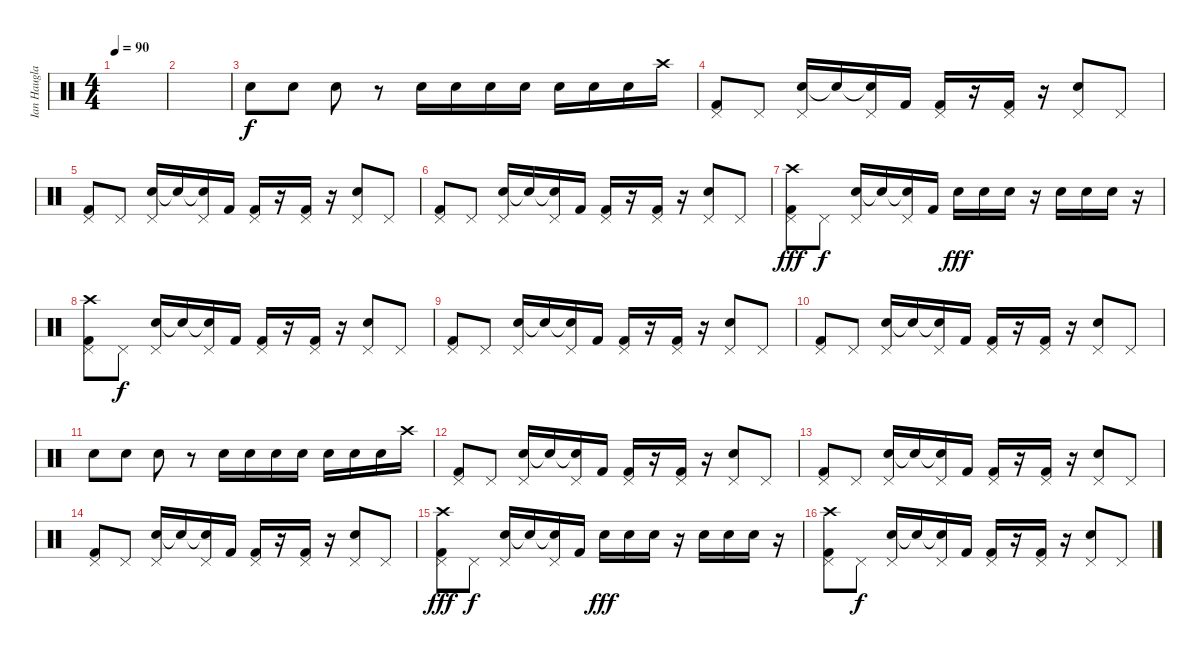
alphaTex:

\track ("Ian Haugland" "Ian Haugla") {instrument percussion}
\staff {score}
\articulation defaults
\ts (4 4)
\tempo 90
\clef neutral
\ks c
|
|
"Electric Snare (hit)".8{dy f} "Electric Snare (hit)".8 "Electric Snare (hit)".8 r.8 "Electric Snare (hit)".16 "Electric Snare (hit)".16 "Electric Snare (hit)".16 "Electric Snare (hit)".16 "Electric Snare (hit)".16 "Electric Snare (hit)".16 "Electric Snare (hit)".16 "Crash high (hit)".16 |
("Kick (hit) 2" "Pedal Hi-Hat (hit)").8 "Pedal Hi-Hat (hit)".8 ("Electric Snare (hit)" "Pedal Hi-Hat (hit)").16 "Snare (hit)"{t}.16 ("Snare (hit)"{t} "Pedal Hi-Hat (hit)").16 "Kick (hit) 2".16 ("Kick (hit) 2" "Pedal Hi-Hat (hit)").16 r.16 ("Kick (hit) 2" "Pedal Hi-Hat (hit)").16 r.16 ("Electric Snare (hit)" "Pedal Hi-Hat (hit)").8 "Pedal Hi-Hat (hit)".8 |
("Kick (hit) 2" "Pedal Hi-Hat (hit)").8 "Pedal Hi-Hat (hit)".8 ("Electric Snare (hit)" "Pedal Hi-Hat (hit)").16 "Snare (hit)"{t}.16 ("Snare (hit)"{t} "Pedal Hi-Hat (hit)").16 "Kick (hit) 2".16 ("Kick (hit) 2" "Pedal Hi-Hat (hit)").16 r.16 ("Kick (hit) 2" "Pedal Hi-Hat (hit)").16 r.16 ("Electric Snare (hit)" "Pedal Hi-Hat (hit)").8 "Pedal Hi-Hat (hit)".8 |
("Kick (hit) 2" "Pedal Hi-Hat (hit)").8 "Pedal Hi-Hat (hit)".8 ("Electric Snare (hit)" "Pedal Hi-Hat (hit)").16 "Snare (hit)"{t}.16 ("Snare (hit)"{t} "Pedal Hi-Hat (hit)").16 "Kick (hit) 2".16 ("Kick (hit) 2" "Pedal Hi-Hat (hit)").16 r.16 ("Kick (hit) 2" "Pedal Hi-Hat (hit)").16 r.16 ("Electric Snare (hit)" "Pedal Hi-Hat (hit)").8 "Pedal Hi-Hat (hit)".8 |
("Kick (hit) 2" "Pedal Hi-Hat (hit)" "Crash high (hit)").8{dy fff} "Pedal Hi-Hat (hit)".8{dy f} ("Electric Snare (hit)" "Pedal Hi-Hat (hit)").16 "Snare (hit)"{t}.16 ("Snare (hit)"{t} "Pedal Hi-Hat (hit)").16 "Kick (hit) 2".16 "Snare (hit) 2".16{dy fff} "Snare (hit) 2".16 "Snare (hit) 2".16 r.16 "Snare (hit) 2".16 "Snare (hit) 2".16 "Snare (hit) 2".16 r.16 |
("Kick (hit) 2" "Pedal Hi-Hat (hit)" "Crash high (hit)").8 "Pedal Hi-Hat (hit)".8{dy f} ("Electric Snare (hit)" "Pedal Hi-Hat (hit)").16 "Snare (hit)"{t}.16 ("Snare (hit)"{t} "Pedal Hi-Hat (hit)").16 "Kick (hit) 2".16 ("Kick (hit) 2" "Pedal Hi-Hat (hit)").16 r.16 ("Kick (hit) 2" "Pedal Hi-Hat (hit)").16 r.16 ("Electric Snare (hit)" "Pedal Hi-Hat (hit)").8 "Pedal Hi-Hat (hit)".8 |
("Kick (hit) 2" "Pedal Hi-Hat (hit)").8 "Pedal Hi-Hat (hit)".8 ("Electric Snare (hit)" "Pedal Hi-Hat (hit)").16 "Snare (hit)"{t}.16 ("Snare (hit)"{t} "Pedal Hi-Hat (hit)").16 "Kick (hit) 2".16 ("Kick (hit) 2" "Pedal Hi-Hat (hit)").16 r.16 ("Kick (hit) 2" "Pedal Hi-Hat (hit)").16 r.16 ("Electric Snare (hit)" "Pedal Hi-Hat (hit)").8 "Pedal Hi-Hat (hit)".8 |
("Kick (hit) 2" "Pedal Hi-Hat (hit)").8 "Pedal Hi-Hat (hit)".8 ("Electric Snare (hit)" "Pedal Hi-Hat (hit)").16 "Snare (hit)"{t}.16 ("Snare (hit)"{t} "Pedal Hi-Hat (hit)").16 "Kick (hit) 2".16 ("Kick (hit) 2" "Pedal Hi-Hat (hit)").16 r.16 ("Kick (hit) 2" "Pedal Hi-Hat (hit)").16 r.16 ("Electric Snare (hit)" "Pedal Hi-Hat (hit)").8 "Pedal Hi-Hat (hit)".8 |
"Electric Snare (hit)".8 "Electric Snare (hit)".8 "Electric Snare (hit)".8 r.8 "Electric Snare (hit)".16 "Electric Snare (hit)".16 "Electric Snare (hit)".16 "Electric Snare (hit)".16 "Electric Snare (hit)".16 "Electric Snare (hit)".16 "Electric Snare (hit)".16 "Crash high (hit)".16 |
("Kick (hit) 2" "Pedal Hi-Hat (hit)").8 "Pedal Hi-Hat (hit)".8 ("Electric Snare (hit)" "Pedal Hi-Hat (hit)").16 "Snare (hit)"{t}.16 ("Snare (hit)"{t} "Pedal Hi-Hat (hit)").16 "Kick (hit) 2".16 ("Kick (hit) 2" "Pedal Hi-Hat (hit)").16 r.16 ("Kick (hit) 2" "Pedal Hi-Hat (hit)").16 r.16 ("Electric Snare (hit)" "Pedal Hi-Hat (hit)").8 "Pedal Hi-Hat (hit)".8 |
("Kick (hit) 2" "Pedal Hi-Hat (hit)").8 "Pedal Hi-Hat (hit)".8 ("Electric Snare (hit)" "Pedal Hi-Hat (hit)").16 "Snare (hit)"{t}.16 ("Snare (hit)"{t} "Pedal Hi-Hat (hit)").16 "Kick (hit) 2".16 ("Kick (hit) 2" "Pedal Hi-Hat (hit)").16 r.16 ("Kick (hit) 2" "Pedal Hi-Hat (hit)").16 r.16 ("Electric Snare (hit)" "Pedal Hi-Hat (hit)").8 "Pedal Hi-Hat (hit)".8 |
("Kick (hit) 2" "Pedal Hi-Hat (hit)").8 "Pedal Hi-Hat (hit)".8 ("Electric Snare (hit)" "Pedal Hi-Hat (hit)").16 "Snare (hit)"{t}.16 ("Snare (hit)"{t} "Pedal Hi-Hat (hit)").16 "Kick (hit) 2".16 ("Kick (hit) 2" "Pedal Hi-Hat (hit)").16 r.16 ("Kick (hit) 2" "Pedal Hi-Hat (hit)").16 r.16 ("Electric Snare (hit)" "Pedal Hi-Hat (hit)").8 "Pedal Hi-Hat (hit)".8 |
("Kick (hit) 2" "Pedal Hi-Hat (hit)" "Crash high (hit)").8{dy fff} "Pedal Hi-Hat (hit)".8{dy f} ("Electric Snare (hit)" "Pedal Hi-Hat (hit)").16 "Snare (hit)"{t}.16 ("Snare (hit)"{t} "Pedal Hi-Hat (hit)").16 "Kick (hit) 2".16 "Snare (hit) 2".16{dy fff} "Snare (hit) 2".16 "Snare (hit) 2".16 r.16 "Snare (hit) 2".16 "Snare (hit) 2".16 "Snare (hit) 2".16 r.16 |
("Kick (hit) 2" "Pedal Hi-Hat (hit)" "Crash high (hit)").8 "Pedal Hi-Hat (hit)".8{dy f} ("Electric Snare (hit)" "Pedal Hi-Hat (hit)").16 "Snare (hit)"{t}.16 ("Snare (hit)"{t} "Pedal Hi-Hat (hit)").16 "Kick (hit) 2".16 ("Kick (hit) 2" "Pedal Hi-Hat (hit)").16 r.16 ("Kick (hit) 2" "Pedal Hi-Hat (hit)").16 r.16 ("Electric Snare (hit)" "Pedal Hi-Hat (hit)").8 "Pedal Hi-Hat (hit)".8
